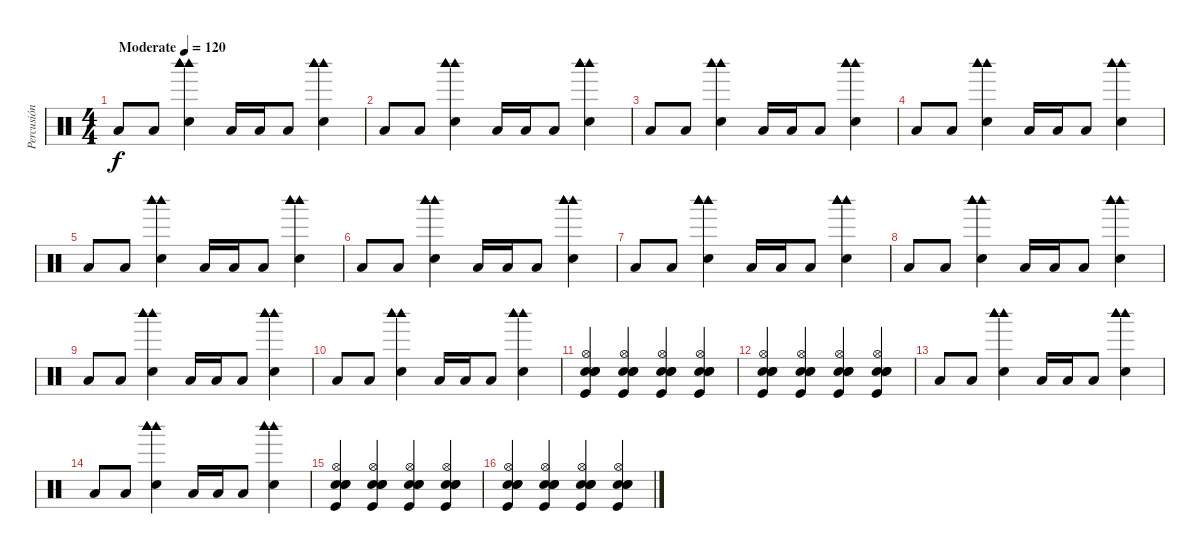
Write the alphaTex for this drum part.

\track ("Percusión" "Percusión") {instrument percussion}
\staff {score}
\articulation defaults
\ts (4 4)
\tempo (120 "Moderate")
\clef neutral
\ks c "Low Tom (hit)".8{dy f} "Low Tom (hit)".8
("Woodblock high (hit)" "Woodblock high (hit)" "Woodblock high (hit)" "Woodblock high (hit)" "Snare (hit) 2").4 "Low Tom (hit)".16 "Low Tom (hit)".16 "Low Tom (hit)".8 ("Woodblock high (hit)" "Woodblock high (hit)" "Woodblock high (hit)" "Woodblock high (hit)" "Snare (hit) 2").4 |
"Low Tom (hit)".8 "Low Tom (hit)".8 ("Woodblock high (hit)" "Woodblock high (hit)" "Woodblock high (hit)" "Woodblock high (hit)" "Snare (hit) 2").4 "Low Tom (hit)".16 "Low Tom (hit)".16 "Low Tom (hit)".8 ("Woodblock high (hit)" "Woodblock high (hit)" "Woodblock high (hit)" "Woodblock high (hit)" "Snare (hit) 2").4 |
"Low Tom (hit)".8 "Low Tom (hit)".8 ("Woodblock high (hit)" "Woodblock high (hit)" "Woodblock high (hit)" "Woodblock high (hit)" "Snare (hit) 2").4 "Low Tom (hit)".16 "Low Tom (hit)".16 "Low Tom (hit)".8 ("Woodblock high (hit)" "Woodblock high (hit)" "Woodblock high (hit)" "Woodblock high (hit)" "Snare (hit) 2").4 |
"Low Tom (hit)".8 "Low Tom (hit)".8 ("Woodblock high (hit)" "Woodblock high (hit)" "Woodblock high (hit)" "Woodblock high (hit)" "Snare (hit) 2").4 "Low Tom (hit)".16 "Low Tom (hit)".16 "Low Tom (hit)".8 ("Woodblock high (hit)" "Woodblock high (hit)" "Woodblock high (hit)" "Woodblock high (hit)" "Snare (hit) 2").4 |
"Low Tom (hit)".8 "Low Tom (hit)".8 ("Woodblock high (hit)" "Woodblock high (hit)" "Woodblock high (hit)" "Woodblock high (hit)" "Snare (hit) 2").4 "Low Tom (hit)".16 "Low Tom (hit)".16 "Low Tom (hit)".8 ("Woodblock high (hit)" "Woodblock high (hit)" "Woodblock high (hit)" "Woodblock high (hit)" "Snare (hit) 2").4 |
"Low Tom (hit)".8 "Low Tom (hit)".8 ("Woodblock high (hit)" "Woodblock high (hit)" "Woodblock high (hit)" "Woodblock high (hit)" "Snare (hit) 2").4 "Low Tom (hit)".16 "Low Tom (hit)".16 "Low Tom (hit)".8 ("Woodblock high (hit)" "Woodblock high (hit)" "Woodblock high (hit)" "Woodblock high (hit)" "Snare (hit) 2").4 |
"Low Tom (hit)".8 "Low Tom (hit)".8 ("Woodblock high (hit)" "Woodblock high (hit)" "Woodblock high (hit)" "Woodblock high (hit)" "Snare (hit) 2").4 "Low Tom (hit)".16 "Low Tom (hit)".16 "Low Tom (hit)".8 ("Woodblock high (hit)" "Woodblock high (hit)" "Woodblock high (hit)" "Woodblock high (hit)" "Snare (hit) 2").4 |
"Low Tom (hit)".8 "Low Tom (hit)".8 ("Woodblock high (hit)" "Woodblock high (hit)" "Woodblock high (hit)" "Woodblock high (hit)" "Snare (hit) 2").4 "Low Tom (hit)".16 "Low Tom (hit)".16 "Low Tom (hit)".8 ("Woodblock high (hit)" "Woodblock high (hit)" "Woodblock high (hit)" "Woodblock high (hit)" "Snare (hit) 2").4 |
"Low Tom (hit)".8 "Low Tom (hit)".8 ("Woodblock high (hit)" "Woodblock high (hit)" "Woodblock high (hit)" "Woodblock high (hit)" "Snare (hit) 2").4 "Low Tom (hit)".16 "Low Tom (hit)".16 "Low Tom (hit)".8 ("Woodblock high (hit)" "Woodblock high (hit)" "Woodblock high (hit)" "Woodblock high (hit)" "Snare (hit) 2").4 |
"Low Tom (hit)".8 "Low Tom (hit)".8 ("Woodblock high (hit)" "Woodblock high (hit)" "Woodblock high (hit)" "Woodblock high (hit)" "Snare (hit) 2").4 "Low Tom (hit)".16 "Low Tom (hit)".16 "Low Tom (hit)".8 ("Woodblock high (hit)" "Woodblock high (hit)" "Woodblock high (hit)" "Woodblock high (hit)" "Snare (hit) 2").4 |
("Hi-Hat (open)" "Snare (hit) 2" "Snare (hit) 2" "Snare (hit) 2" "Kick (hit)").4 ("Hi-Hat (open)" "Snare (hit) 2" "Snare (hit) 2" "Snare (hit) 2" "Kick (hit)").4 ("Hi-Hat (open)" "Snare (hit) 2" "Snare (hit) 2" "Snare (hit) 2" "Kick (hit)").4 ("Hi-Hat (open)" "Snare (hit) 2" "Snare (hit) 2" "Snare (hit) 2" "Kick (hit)").4 |
("Hi-Hat (open)" "Snare (hit) 2" "Snare (hit) 2" "Snare (hit) 2" "Kick (hit)").4 ("Hi-Hat (open)" "Snare (hit) 2" "Snare (hit) 2" "Snare (hit) 2" "Kick (hit)").4 ("Hi-Hat (open)" "Snare (hit) 2" "Snare (hit) 2" "Snare (hit) 2" "Kick (hit)").4 ("Hi-Hat (open)" "Snare (hit) 2" "Snare (hit) 2" "Snare (hit) 2" "Kick (hit)").4 |
"Low Tom (hit)".8 "Low Tom (hit)".8 ("Woodblock high (hit)" "Woodblock high (hit)" "Woodblock high (hit)" "Woodblock high (hit)" "Snare (hit) 2").4 "Low Tom (hit)".16 "Low Tom (hit)".16 "Low Tom (hit)".8 ("Woodblock high (hit)" "Woodblock high (hit)" "Woodblock high (hit)" "Woodblock high (hit)" "Snare (hit) 2").4 |
"Low Tom (hit)".8 "Low Tom (hit)".8 ("Woodblock high (hit)" "Woodblock high (hit)" "Woodblock high (hit)" "Woodblock high (hit)" "Snare (hit) 2").4 "Low Tom (hit)".16 "Low Tom (hit)".16 "Low Tom (hit)".8 ("Woodblock high (hit)" "Woodblock high (hit)" "Woodblock high (hit)" "Woodblock high (hit)" "Snare (hit) 2").4 |
("Hi-Hat (open)" "Snare (hit) 2" "Snare (hit) 2" "Snare (hit) 2" "Kick (hit)").4 ("Hi-Hat (open)" "Snare (hit) 2" "Snare (hit) 2" "Snare (hit) 2" "Kick (hit)").4 ("Hi-Hat (open)" "Snare (hit) 2" "Snare (hit) 2" "Snare (hit) 2" "Kick (hit)").4 ("Hi-Hat (open)" "Snare (hit) 2" "Snare (hit) 2" "Snare (hit) 2" "Kick (hit)").4 |
("Hi-Hat (open)" "Snare (hit) 2" "Snare (hit) 2" "Snare (hit) 2" "Kick (hit)").4 ("Hi-Hat (open)" "Snare (hit) 2" "Snare (hit) 2" "Snare (hit) 2" "Kick (hit)").4 ("Hi-Hat (open)" "Snare (hit) 2" "Snare (hit) 2" "Snare (hit) 2" "Kick (hit)").4 ("Hi-Hat (open)" "Snare (hit) 2" "Snare (hit) 2" "Snare (hit) 2" "Kick (hit)").4
